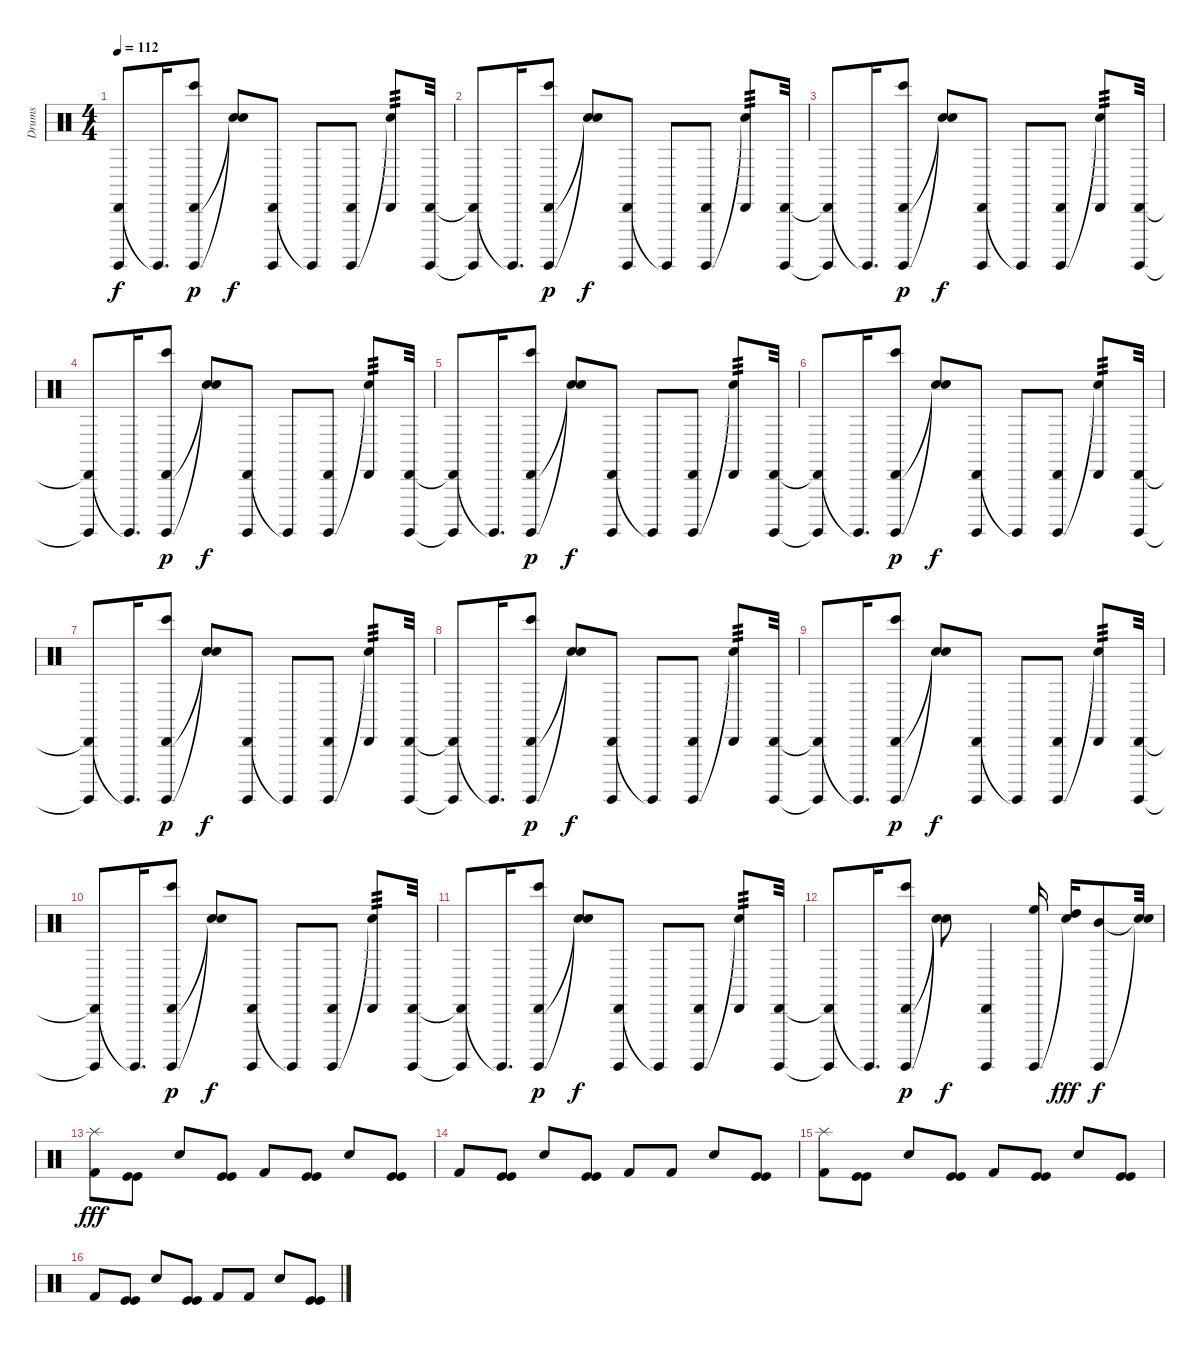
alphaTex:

\track ("Drums" "Drums") {instrument percussion}
\staff {score}
\articulation defaults
\ts (4 4)
\tempo 112
\clef neutral
\ks c
("Cabasa (hit)"{t} "Surdo (hit)"{t}).8{dy f} "Surdo (hit)"{t}.16{d} ("Cabasa (hit)" "Surdo (hit)" "Bongo High (hit)").8{dy p} ("Snare (hit)"{t} "Snare (hit)"{t}).8{dy f} ("Cabasa (hit)" "Surdo (hit)").8 "Surdo (hit)"{t}.8 ("Cabasa (hit)" "Surdo (hit)").8 ("Cabasa (hit)" "Snare (hit)"{t}).8{tp 3} ("Cabasa (hit)" "Surdo (hit)").32 |
("Cabasa (hit)"{t} "Surdo (hit)"{t}).8 "Surdo (hit)"{t}.16{d} ("Cabasa (hit)" "Surdo (hit)" "Bongo High (hit)").8{dy p} ("Snare (hit)"{t} "Snare (hit)"{t}).8{dy f} ("Cabasa (hit)" "Surdo (hit)").8 "Surdo (hit)"{t}.8 ("Cabasa (hit)" "Surdo (hit)").8 ("Cabasa (hit)" "Snare (hit)"{t}).8{tp 3} ("Cabasa (hit)" "Surdo (hit)").32 |
("Cabasa (hit)"{t} "Surdo (hit)"{t}).8 "Surdo (hit)"{t}.16{d} ("Cabasa (hit)" "Surdo (hit)" "Bongo High (hit)").8{dy p} ("Snare (hit)"{t} "Snare (hit)"{t}).8{dy f} ("Cabasa (hit)" "Surdo (hit)").8 "Surdo (hit)"{t}.8 ("Cabasa (hit)" "Surdo (hit)").8 ("Cabasa (hit)" "Snare (hit)"{t}).8{tp 3} ("Cabasa (hit)" "Surdo (hit)").32 |
("Cabasa (hit)"{t} "Surdo (hit)"{t}).8 "Surdo (hit)"{t}.16{d} ("Cabasa (hit)" "Surdo (hit)" "Bongo High (hit)").8{dy p} ("Snare (hit)"{t} "Snare (hit)"{t}).8{dy f} ("Cabasa (hit)" "Surdo (hit)").8 "Surdo (hit)"{t}.8 ("Cabasa (hit)" "Surdo (hit)").8 ("Cabasa (hit)" "Snare (hit)"{t}).8{tp 3} ("Cabasa (hit)" "Surdo (hit)").32 |
("Cabasa (hit)"{t} "Surdo (hit)"{t}).8 "Surdo (hit)"{t}.16{d} ("Cabasa (hit)" "Surdo (hit)" "Bongo High (hit)").8{dy p} ("Snare (hit)"{t} "Snare (hit)"{t}).8{dy f} ("Cabasa (hit)" "Surdo (hit)").8 "Surdo (hit)"{t}.8 ("Cabasa (hit)" "Surdo (hit)").8 ("Cabasa (hit)" "Snare (hit)"{t}).8{tp 3} ("Cabasa (hit)" "Surdo (hit)").32 |
("Cabasa (hit)"{t} "Surdo (hit)"{t}).8 "Surdo (hit)"{t}.16{d} ("Cabasa (hit)" "Surdo (hit)" "Bongo High (hit)").8{dy p} ("Snare (hit)"{t} "Snare (hit)"{t}).8{dy f} ("Cabasa (hit)" "Surdo (hit)").8 "Surdo (hit)"{t}.8 ("Cabasa (hit)" "Surdo (hit)").8 ("Cabasa (hit)" "Snare (hit)"{t}).8{tp 3} ("Cabasa (hit)" "Surdo (hit)").32 |
("Cabasa (hit)"{t} "Surdo (hit)"{t}).8 "Surdo (hit)"{t}.16{d} ("Cabasa (hit)" "Surdo (hit)" "Bongo High (hit)").8{dy p} ("Snare (hit)"{t} "Snare (hit)"{t}).8{dy f} ("Cabasa (hit)" "Surdo (hit)").8 "Surdo (hit)"{t}.8 ("Cabasa (hit)" "Surdo (hit)").8 ("Cabasa (hit)" "Snare (hit)"{t}).8{tp 3} ("Cabasa (hit)" "Surdo (hit)").32 |
("Cabasa (hit)"{t} "Surdo (hit)"{t}).8 "Surdo (hit)"{t}.16{d} ("Cabasa (hit)" "Surdo (hit)" "Bongo High (hit)").8{dy p} ("Snare (hit)"{t} "Snare (hit)"{t}).8{dy f} ("Cabasa (hit)" "Surdo (hit)").8 "Surdo (hit)"{t}.8 ("Cabasa (hit)" "Surdo (hit)").8 ("Cabasa (hit)" "Snare (hit)"{t}).8{tp 3} ("Cabasa (hit)" "Surdo (hit)").32 |
("Cabasa (hit)"{t} "Surdo (hit)"{t}).8 "Surdo (hit)"{t}.16{d} ("Cabasa (hit)" "Surdo (hit)" "Bongo High (hit)").8{dy p} ("Snare (hit)"{t} "Snare (hit)"{t}).8{dy f} ("Cabasa (hit)" "Surdo (hit)").8 "Surdo (hit)"{t}.8 ("Cabasa (hit)" "Surdo (hit)").8 ("Cabasa (hit)" "Snare (hit)"{t}).8{tp 3} ("Cabasa (hit)" "Surdo (hit)").32 |
("Cabasa (hit)"{t} "Surdo (hit)"{t}).8 "Surdo (hit)"{t}.16{d} ("Cabasa (hit)" "Surdo (hit)" "Bongo High (hit)").8{dy p} ("Snare (hit)"{t} "Snare (hit)"{t}).8{dy f} ("Cabasa (hit)" "Surdo (hit)").8 "Surdo (hit)"{t}.8 ("Cabasa (hit)" "Surdo (hit)").8 ("Cabasa (hit)" "Snare (hit)"{t}).8{tp 3} ("Cabasa (hit)" "Surdo (hit)").32 |
("Cabasa (hit)"{t} "Surdo (hit)"{t}).8 "Surdo (hit)"{t}.16{d} ("Cabasa (hit)" "Surdo (hit)" "Bongo High (hit)").8{dy p} ("Snare (hit)"{t} "Snare (hit)"{t}).8{dy f} ("Cabasa (hit)" "Surdo (hit)").8 "Surdo (hit)"{t}.8 ("Cabasa (hit)" "Surdo (hit)").8 ("Cabasa (hit)" "Snare (hit)"{t}).8{tp 3} ("Cabasa (hit)" "Surdo (hit)").32 |
("Cabasa (hit)"{t} "Surdo (hit)"{t}).8 "Surdo (hit)"{t}.16{d} ("Cabasa (hit)" "Surdo (hit)" "Bongo High (hit)").8{dy p} ("Snare (hit)"{t} "Snare (hit)"{t}).8{dy f} ("Cabasa (hit)" "Surdo (hit)").4 ("High Floor Tom (hit)" "Surdo (hit)").16 ("High Tom (hit)" "Snare (hit)"{t}).16{dy fff} ("Mid Tom (hit)" "Surdo (hit)").8{dy f} ("Snare (hit)"{t} "Snare (hit)"{t}).32 |
("Kick (hit) 2" "Splash (hit)").8{dy fff} ("Kick (hit)" "Kick (hit)").8 "Snare (hit) 2".8 ("Kick (hit)" "Kick (hit)").8 "Kick (hit) 2".8 ("Kick (hit)" "Kick (hit)").8 "Snare (hit) 2".8 ("Kick (hit)" "Kick (hit)").8 |
"Kick (hit) 2".8 ("Kick (hit)" "Kick (hit)").8 "Snare (hit) 2".8 ("Kick (hit)" "Kick (hit)").8 "Kick (hit) 2".8 "Kick (hit) 2".8 "Snare (hit) 2".8 ("Kick (hit)" "Kick (hit)").8 |
("Kick (hit) 2" "Splash (hit)").8 ("Kick (hit)" "Kick (hit)").8 "Snare (hit) 2".8 ("Kick (hit)" "Kick (hit)").8 "Kick (hit) 2".8 ("Kick (hit)" "Kick (hit)").8 "Snare (hit) 2".8 ("Kick (hit)" "Kick (hit)").8 |
"Kick (hit) 2".8 ("Kick (hit)" "Kick (hit)").8 "Snare (hit) 2".8 ("Kick (hit)" "Kick (hit)").8 "Kick (hit) 2".8 "Kick (hit) 2".8 "Snare (hit) 2".8 ("Kick (hit)" "Kick (hit)").8
